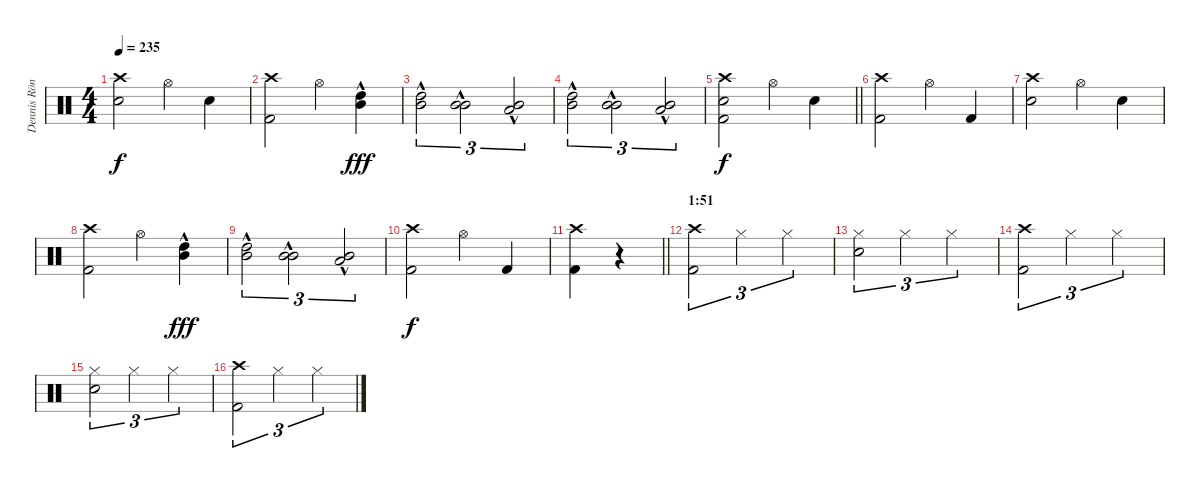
\track ("Dennis Röndum" "Dennis Rön") {instrument percussion}
\staff {score}
\articulation defaults
\ts (4 4)
\tempo 235
\clef neutral
\ks c
("Crash high (hit)" "Snare (hit) 2").2{dy f} "Hi-Hat (open)".4 "Snare (hit) 2".4 |
("Crash high (hit)" "Kick (hit) 2").2 "Hi-Hat (open)".4 ("Mid Tom (hit)"{hac} "High Tom (hit)").4{dy fff} |
("Mid Tom (hit)" "High Tom (hit)"{hac}).2{tu (3 2)} ("Mid Tom (hit)" "Mid Tom (hit)"{hac}).2{tu (3 2)} ("Mid Tom (hit)" "Low Floor Tom (hit)"{hac}).2{tu (3 2)} |
("Mid Tom (hit)" "High Tom (hit)"{hac}).2{tu (3 2)} ("Mid Tom (hit)" "Mid Tom (hit)"{hac}).2{tu (3 2)} ("Mid Tom (hit)" "Low Floor Tom (hit)"{hac}).2{tu (3 2)} |
\barLineRight lightlight
("Crash high (hit)" "Snare (hit) 2" "Kick (hit) 2").2{dy f} "Hi-Hat (open)".4 "Snare (hit) 2".4 |
("Crash high (hit)" "Kick (hit) 2").2 "Hi-Hat (open)".4 "Kick (hit) 2".4 |
("Crash high (hit)" "Snare (hit) 2").2 "Hi-Hat (open)".4 "Snare (hit) 2".4 |
("Crash high (hit)" "Kick (hit) 2").2 "Hi-Hat (open)".4 ("Mid Tom (hit)"{hac} "High Tom (hit)").4{dy fff} |
("Mid Tom (hit)" "High Tom (hit)"{hac}).2{tu (3 2)} ("Mid Tom (hit)" "Mid Tom (hit)"{hac}).2{tu (3 2)} ("Mid Tom (hit)" "Low Floor Tom (hit)"{hac}).2{tu (3 2)} |
("Crash high (hit)" "Kick (hit) 2").2{dy f} "Hi-Hat (open)".4 "Kick (hit) 2".4 |
\barLineRight lightlight
("Crash high (hit)" "Kick (hit) 2").4 r.4 |
\section ("" "1:51")
("Crash high (hit)" "Kick (hit) 2").2{tu (3 2)} "Hi-Hat (closed)".2{tu (3 2)} "Hi-Hat (closed)".2{tu (3 2)} |
("Hi-Hat (closed)" "Snare (hit) 2").2{tu (3 2)} "Hi-Hat (closed)".2{tu (3 2)} "Hi-Hat (closed)".2{tu (3 2)} |
("Crash high (hit)" "Kick (hit) 2").2{tu (3 2)} "Hi-Hat (closed)".2{tu (3 2)} "Hi-Hat (closed)".2{tu (3 2)} |
("Hi-Hat (closed)" "Snare (hit) 2").2{tu (3 2)} "Hi-Hat (closed)".2{tu (3 2)} "Hi-Hat (closed)".2{tu (3 2)} |
("Crash high (hit)" "Kick (hit) 2").2{tu (3 2)} "Hi-Hat (closed)".2{tu (3 2)} "Hi-Hat (closed)".2{tu (3 2)}
